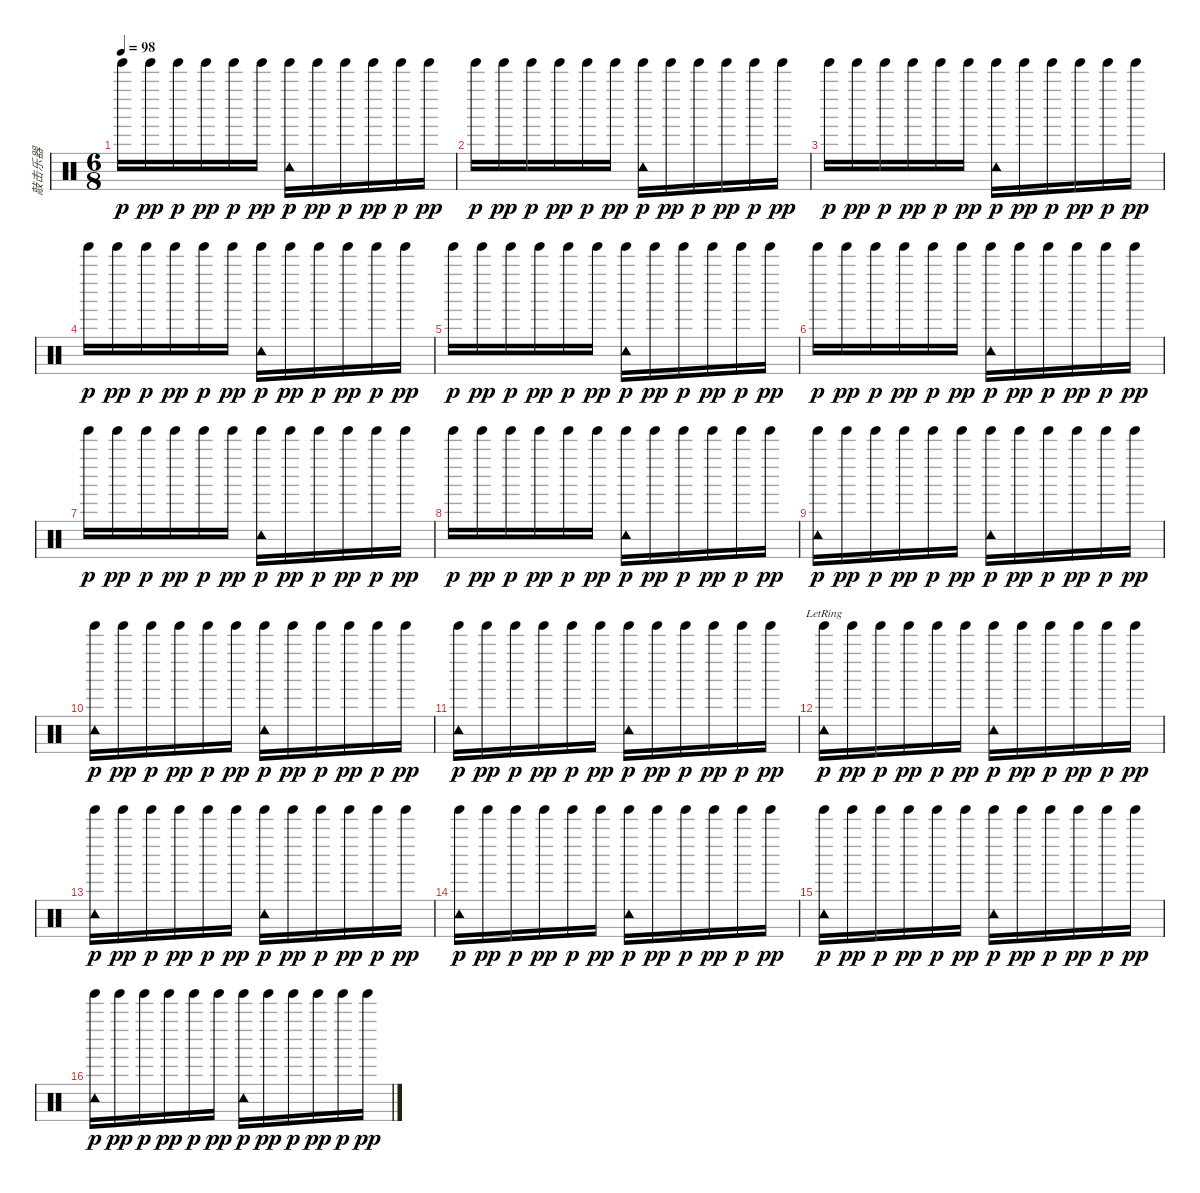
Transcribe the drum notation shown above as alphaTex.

\track ("敲击乐器" "敲击乐器") {instrument percussion}
\staff {score}
\articulation defaults
\ts (6 8)
\tempo 98
\clef neutral
\ks c "Tinkle Bell (hit)".16{dy p} "Tinkle Bell (hit)".16{dy pp} "Tinkle Bell (hit)".16{dy p} "Tinkle Bell (hit)".16{dy pp} "Tinkle Bell (hit)".16{dy p} "Tinkle Bell (hit)".16{dy pp}
("Tinkle Bell (hit)" "Tambourine (hit)").16{dy p} "Tinkle Bell (hit)".16{dy pp} "Tinkle Bell (hit)".16{dy p} "Tinkle Bell (hit)".16{dy pp} "Tinkle Bell (hit)".16{dy p} "Tinkle Bell (hit)".16{dy pp} |
"Tinkle Bell (hit)".16{dy p} "Tinkle Bell (hit)".16{dy pp} "Tinkle Bell (hit)".16{dy p} "Tinkle Bell (hit)".16{dy pp} "Tinkle Bell (hit)".16{dy p} "Tinkle Bell (hit)".16{dy pp} ("Tinkle Bell (hit)" "Tambourine (hit)").16{dy p} "Tinkle Bell (hit)".16{dy pp} "Tinkle Bell (hit)".16{dy p} "Tinkle Bell (hit)".16{dy pp} "Tinkle Bell (hit)".16{dy p} "Tinkle Bell (hit)".16{dy pp} |
"Tinkle Bell (hit)".16{dy p} "Tinkle Bell (hit)".16{dy pp} "Tinkle Bell (hit)".16{dy p} "Tinkle Bell (hit)".16{dy pp} "Tinkle Bell (hit)".16{dy p} "Tinkle Bell (hit)".16{dy pp} ("Tinkle Bell (hit)" "Tambourine (hit)").16{dy p} "Tinkle Bell (hit)".16{dy pp} "Tinkle Bell (hit)".16{dy p} "Tinkle Bell (hit)".16{dy pp} "Tinkle Bell (hit)".16{dy p} "Tinkle Bell (hit)".16{dy pp} |
"Tinkle Bell (hit)".16{dy p} "Tinkle Bell (hit)".16{dy pp} "Tinkle Bell (hit)".16{dy p} "Tinkle Bell (hit)".16{dy pp} "Tinkle Bell (hit)".16{dy p} "Tinkle Bell (hit)".16{dy pp} ("Tinkle Bell (hit)" "Tambourine (hit)").16{dy p} "Tinkle Bell (hit)".16{dy pp} "Tinkle Bell (hit)".16{dy p} "Tinkle Bell (hit)".16{dy pp} "Tinkle Bell (hit)".16{dy p} "Tinkle Bell (hit)".16{dy pp} |
"Tinkle Bell (hit)".16{dy p} "Tinkle Bell (hit)".16{dy pp} "Tinkle Bell (hit)".16{dy p} "Tinkle Bell (hit)".16{dy pp} "Tinkle Bell (hit)".16{dy p} "Tinkle Bell (hit)".16{dy pp} ("Tinkle Bell (hit)" "Tambourine (hit)").16{dy p} "Tinkle Bell (hit)".16{dy pp} "Tinkle Bell (hit)".16{dy p} "Tinkle Bell (hit)".16{dy pp} "Tinkle Bell (hit)".16{dy p} "Tinkle Bell (hit)".16{dy pp} |
"Tinkle Bell (hit)".16{dy p} "Tinkle Bell (hit)".16{dy pp} "Tinkle Bell (hit)".16{dy p} "Tinkle Bell (hit)".16{dy pp} "Tinkle Bell (hit)".16{dy p} "Tinkle Bell (hit)".16{dy pp} ("Tinkle Bell (hit)" "Tambourine (hit)").16{dy p} "Tinkle Bell (hit)".16{dy pp} "Tinkle Bell (hit)".16{dy p} "Tinkle Bell (hit)".16{dy pp} "Tinkle Bell (hit)".16{dy p} "Tinkle Bell (hit)".16{dy pp} |
"Tinkle Bell (hit)".16{dy p} "Tinkle Bell (hit)".16{dy pp} "Tinkle Bell (hit)".16{dy p} "Tinkle Bell (hit)".16{dy pp} "Tinkle Bell (hit)".16{dy p} "Tinkle Bell (hit)".16{dy pp} ("Tinkle Bell (hit)" "Tambourine (hit)").16{dy p} "Tinkle Bell (hit)".16{dy pp} "Tinkle Bell (hit)".16{dy p} "Tinkle Bell (hit)".16{dy pp} "Tinkle Bell (hit)".16{dy p} "Tinkle Bell (hit)".16{dy pp} |
"Tinkle Bell (hit)".16{dy p} "Tinkle Bell (hit)".16{dy pp} "Tinkle Bell (hit)".16{dy p} "Tinkle Bell (hit)".16{dy pp} "Tinkle Bell (hit)".16{dy p} "Tinkle Bell (hit)".16{dy pp} ("Tinkle Bell (hit)" "Tambourine (hit)").16{dy p} "Tinkle Bell (hit)".16{dy pp} "Tinkle Bell (hit)".16{dy p} "Tinkle Bell (hit)".16{dy pp} "Tinkle Bell (hit)".16{dy p} "Tinkle Bell (hit)".16{dy pp} |
("Tinkle Bell (hit)" "Tambourine (hit)").16{dy p} "Tinkle Bell (hit)".16{dy pp} "Tinkle Bell (hit)".16{dy p} "Tinkle Bell (hit)".16{dy pp} "Tinkle Bell (hit)".16{dy p} "Tinkle Bell (hit)".16{dy pp} ("Tinkle Bell (hit)" "Tambourine (hit)").16{dy p} "Tinkle Bell (hit)".16{dy pp} "Tinkle Bell (hit)".16{dy p} "Tinkle Bell (hit)".16{dy pp} "Tinkle Bell (hit)".16{dy p} "Tinkle Bell (hit)".16{dy pp} |
("Tinkle Bell (hit)" "Tambourine (hit)").16{dy p} "Tinkle Bell (hit)".16{dy pp} "Tinkle Bell (hit)".16{dy p} "Tinkle Bell (hit)".16{dy pp} "Tinkle Bell (hit)".16{dy p} "Tinkle Bell (hit)".16{dy pp} ("Tinkle Bell (hit)" "Tambourine (hit)").16{dy p} "Tinkle Bell (hit)".16{dy pp} "Tinkle Bell (hit)".16{dy p} "Tinkle Bell (hit)".16{dy pp} "Tinkle Bell (hit)".16{dy p} "Tinkle Bell (hit)".16{dy pp} |
("Tinkle Bell (hit)" "Tambourine (hit)").16{dy p} "Tinkle Bell (hit)".16{dy pp} "Tinkle Bell (hit)".16{dy p} "Tinkle Bell (hit)".16{dy pp} "Tinkle Bell (hit)".16{dy p} "Tinkle Bell (hit)".16{dy pp} ("Tinkle Bell (hit)" "Tambourine (hit)").16{dy p} "Tinkle Bell (hit)".16{dy pp} "Tinkle Bell (hit)".16{dy p} "Tinkle Bell (hit)".16{dy pp} "Tinkle Bell (hit)".16{dy p} "Tinkle Bell (hit)".16{dy pp} |
("Tinkle Bell (hit)" "Tambourine (hit)"{lr}).16{dy p} "Tinkle Bell (hit)".16{dy pp} "Tinkle Bell (hit)".16{dy p} "Tinkle Bell (hit)".16{dy pp} "Tinkle Bell (hit)".16{dy p} "Tinkle Bell (hit)".16{dy pp} ("Tinkle Bell (hit)" "Tambourine (hit)").16{dy p} "Tinkle Bell (hit)".16{dy pp} "Tinkle Bell (hit)".16{dy p} "Tinkle Bell (hit)".16{dy pp} "Tinkle Bell (hit)".16{dy p} "Tinkle Bell (hit)".16{dy pp} |
("Tinkle Bell (hit)" "Tambourine (hit)").16{dy p} "Tinkle Bell (hit)".16{dy pp} "Tinkle Bell (hit)".16{dy p} "Tinkle Bell (hit)".16{dy pp} "Tinkle Bell (hit)".16{dy p} "Tinkle Bell (hit)".16{dy pp} ("Tinkle Bell (hit)" "Tambourine (hit)").16{dy p} "Tinkle Bell (hit)".16{dy pp} "Tinkle Bell (hit)".16{dy p} "Tinkle Bell (hit)".16{dy pp} "Tinkle Bell (hit)".16{dy p} "Tinkle Bell (hit)".16{dy pp} |
("Tinkle Bell (hit)" "Tambourine (hit)").16{dy p} "Tinkle Bell (hit)".16{dy pp} "Tinkle Bell (hit)".16{dy p} "Tinkle Bell (hit)".16{dy pp} "Tinkle Bell (hit)".16{dy p} "Tinkle Bell (hit)".16{dy pp} ("Tinkle Bell (hit)" "Tambourine (hit)").16{dy p} "Tinkle Bell (hit)".16{dy pp} "Tinkle Bell (hit)".16{dy p} "Tinkle Bell (hit)".16{dy pp} "Tinkle Bell (hit)".16{dy p} "Tinkle Bell (hit)".16{dy pp} |
("Tinkle Bell (hit)" "Tambourine (hit)").16{dy p} "Tinkle Bell (hit)".16{dy pp} "Tinkle Bell (hit)".16{dy p} "Tinkle Bell (hit)".16{dy pp} "Tinkle Bell (hit)".16{dy p} "Tinkle Bell (hit)".16{dy pp} ("Tinkle Bell (hit)" "Tambourine (hit)").16{dy p} "Tinkle Bell (hit)".16{dy pp} "Tinkle Bell (hit)".16{dy p} "Tinkle Bell (hit)".16{dy pp} "Tinkle Bell (hit)".16{dy p} "Tinkle Bell (hit)".16{dy pp} |
("Tinkle Bell (hit)" "Tambourine (hit)").16{dy p} "Tinkle Bell (hit)".16{dy pp} "Tinkle Bell (hit)".16{dy p} "Tinkle Bell (hit)".16{dy pp} "Tinkle Bell (hit)".16{dy p} "Tinkle Bell (hit)".16{dy pp} ("Tinkle Bell (hit)" "Tambourine (hit)").16{dy p} "Tinkle Bell (hit)".16{dy pp} "Tinkle Bell (hit)".16{dy p} "Tinkle Bell (hit)".16{dy pp} "Tinkle Bell (hit)".16{dy p} "Tinkle Bell (hit)".16{dy pp}
